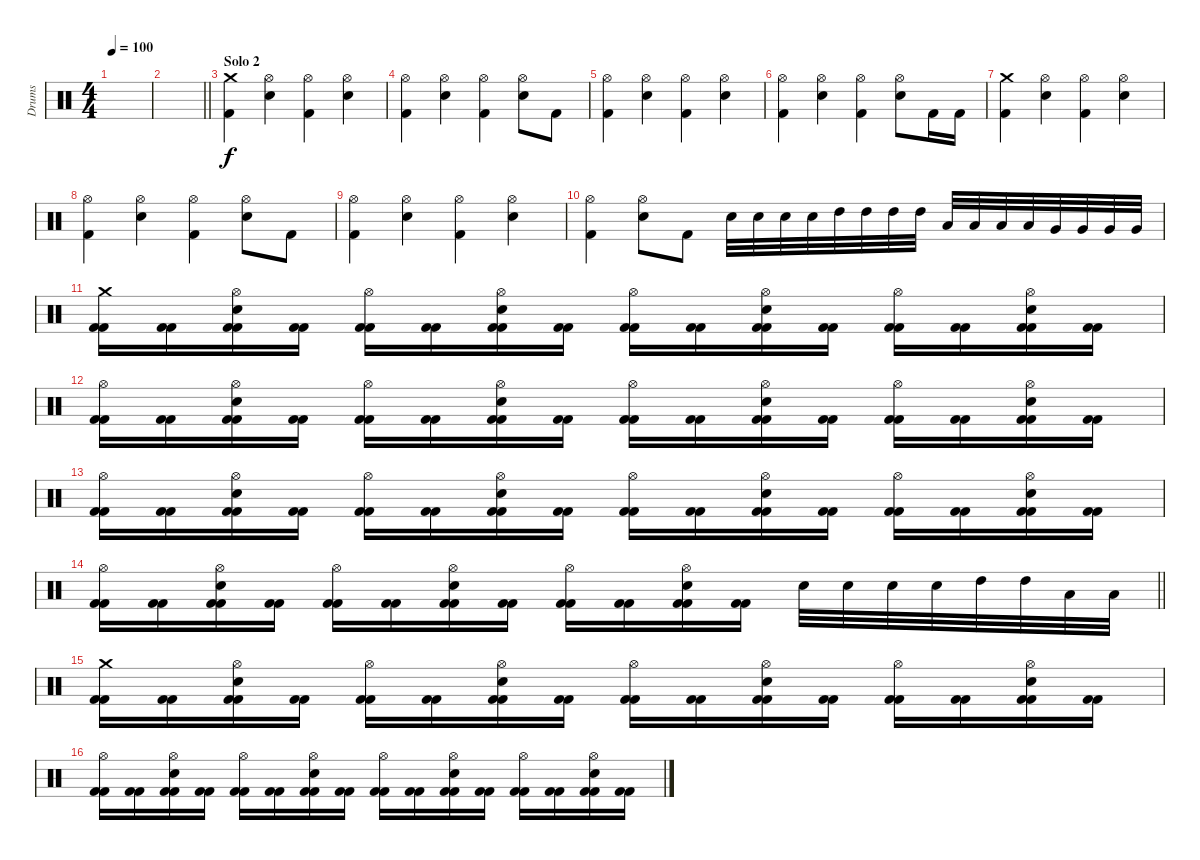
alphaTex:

\track ("Drums" "Drums") {instrument percussion}
\staff {score}
\articulation defaults
\ts (4 4)
\tempo 100
\clef neutral
\ks c
|
\barLineRight lightlight
|
\section ("" "Solo 2")
("Crash medium (hit)" "Kick (hit) 2").4 ("Hi-Hat (open)" "Electric Snare (hit)").4 ("Hi-Hat (open)" "Kick (hit) 2").4 ("Hi-Hat (open)" "Electric Snare (hit)").4 |
("Hi-Hat (open)" "Kick (hit) 2").4 ("Hi-Hat (open)" "Electric Snare (hit)").4 ("Hi-Hat (open)" "Kick (hit) 2").4 ("Hi-Hat (open)" "Electric Snare (hit)").8 "Kick (hit) 2".8 |
("Hi-Hat (open)" "Kick (hit) 2").4 ("Hi-Hat (open)" "Electric Snare (hit)").4 ("Hi-Hat (open)" "Kick (hit) 2").4 ("Hi-Hat (open)" "Electric Snare (hit)").4 |
("Hi-Hat (open)" "Kick (hit) 2").4 ("Hi-Hat (open)" "Electric Snare (hit)").4 ("Hi-Hat (open)" "Kick (hit) 2").4 ("Hi-Hat (open)" "Electric Snare (hit)").8 "Kick (hit) 2".16 "Kick (hit) 2".16 |
("Crash medium (hit)" "Kick (hit) 2").4 ("Hi-Hat (open)" "Electric Snare (hit)").4 ("Hi-Hat (open)" "Kick (hit) 2").4 ("Hi-Hat (open)" "Electric Snare (hit)").4 |
("Hi-Hat (open)" "Kick (hit) 2").4 ("Hi-Hat (open)" "Electric Snare (hit)").4 ("Hi-Hat (open)" "Kick (hit) 2").4 ("Hi-Hat (open)" "Electric Snare (hit)").8 "Kick (hit) 2".8 |
("Hi-Hat (open)" "Kick (hit) 2").4 ("Hi-Hat (open)" "Electric Snare (hit)").4 ("Hi-Hat (open)" "Kick (hit) 2").4 ("Hi-Hat (open)" "Electric Snare (hit)").4 |
("Hi-Hat (open)" "Kick (hit) 2").4 ("Hi-Hat (open)" "Electric Snare (hit)").8 "Kick (hit) 2".8 "Electric Snare (hit)".32 "Electric Snare (hit)".32 "Electric Snare (hit)".32 "Electric Snare (hit)".32 "High Tom (hit)".32 "High Tom (hit)".32 "High Tom (hit)".32 "High Tom (hit)".32 "Low Tom (hit)".32 "Low Tom (hit)".32 "Low Tom (hit)".32 "Low Tom (hit)".32 "Very Low Tom (hit)".32 "Very Low Tom (hit)".32 "Very Low Tom (hit)".32 "Very Low Tom (hit)".32 |
("Crash medium (hit)" "Kick (hit) 2" "Kick (hit) 2").16 ("Kick (hit) 2" "Kick (hit) 2").16 ("Hi-Hat (open)" "Electric Snare (hit)" "Kick (hit) 2" "Kick (hit) 2").16 ("Kick (hit) 2" "Kick (hit) 2").16 ("Hi-Hat (open)" "Kick (hit) 2" "Kick (hit) 2").16 ("Kick (hit) 2" "Kick (hit) 2").16 ("Hi-Hat (open)" "Electric Snare (hit)" "Kick (hit) 2" "Kick (hit) 2").16 ("Kick (hit) 2" "Kick (hit) 2").16 ("Hi-Hat (open)" "Kick (hit) 2" "Kick (hit) 2").16 ("Kick (hit) 2" "Kick (hit) 2").16 ("Hi-Hat (open)" "Electric Snare (hit)" "Kick (hit) 2" "Kick (hit) 2").16 ("Kick (hit) 2" "Kick (hit) 2").16 ("Hi-Hat (open)" "Kick (hit) 2" "Kick (hit) 2").16 ("Kick (hit) 2" "Kick (hit) 2").16 ("Hi-Hat (open)" "Electric Snare (hit)" "Kick (hit) 2" "Kick (hit) 2").16 ("Kick (hit) 2" "Kick (hit) 2").16 |
("Hi-Hat (open)" "Kick (hit) 2" "Kick (hit) 2").16 ("Kick (hit) 2" "Kick (hit) 2").16 ("Hi-Hat (open)" "Electric Snare (hit)" "Kick (hit) 2" "Kick (hit) 2").16 ("Kick (hit) 2" "Kick (hit) 2").16 ("Hi-Hat (open)" "Kick (hit) 2" "Kick (hit) 2").16 ("Kick (hit) 2" "Kick (hit) 2").16 ("Hi-Hat (open)" "Electric Snare (hit)" "Kick (hit) 2" "Kick (hit) 2").16 ("Kick (hit) 2" "Kick (hit) 2").16 ("Hi-Hat (open)" "Kick (hit) 2" "Kick (hit) 2").16 ("Kick (hit) 2" "Kick (hit) 2").16 ("Hi-Hat (open)" "Electric Snare (hit)" "Kick (hit) 2" "Kick (hit) 2").16 ("Kick (hit) 2" "Kick (hit) 2").16 ("Hi-Hat (open)" "Kick (hit) 2" "Kick (hit) 2").16 ("Kick (hit) 2" "Kick (hit) 2").16 ("Hi-Hat (open)" "Electric Snare (hit)" "Kick (hit) 2" "Kick (hit) 2").16 ("Kick (hit) 2" "Kick (hit) 2").16 |
("Hi-Hat (open)" "Kick (hit) 2" "Kick (hit) 2").16 ("Kick (hit) 2" "Kick (hit) 2").16 ("Hi-Hat (open)" "Electric Snare (hit)" "Kick (hit) 2" "Kick (hit) 2").16 ("Kick (hit) 2" "Kick (hit) 2").16 ("Hi-Hat (open)" "Kick (hit) 2" "Kick (hit) 2").16 ("Kick (hit) 2" "Kick (hit) 2").16 ("Hi-Hat (open)" "Electric Snare (hit)" "Kick (hit) 2" "Kick (hit) 2").16 ("Kick (hit) 2" "Kick (hit) 2").16 ("Hi-Hat (open)" "Kick (hit) 2" "Kick (hit) 2").16 ("Kick (hit) 2" "Kick (hit) 2").16 ("Hi-Hat (open)" "Electric Snare (hit)" "Kick (hit) 2" "Kick (hit) 2").16 ("Kick (hit) 2" "Kick (hit) 2").16 ("Hi-Hat (open)" "Kick (hit) 2" "Kick (hit) 2").16 ("Kick (hit) 2" "Kick (hit) 2").16 ("Hi-Hat (open)" "Electric Snare (hit)" "Kick (hit) 2" "Kick (hit) 2").16 ("Kick (hit) 2" "Kick (hit) 2").16 |
\barLineRight lightlight
("Hi-Hat (open)" "Kick (hit) 2" "Kick (hit) 2").16 ("Kick (hit) 2" "Kick (hit) 2").16 ("Hi-Hat (open)" "Electric Snare (hit)" "Kick (hit) 2" "Kick (hit) 2").16 ("Kick (hit) 2" "Kick (hit) 2").16 ("Hi-Hat (open)" "Kick (hit) 2" "Kick (hit) 2").16 ("Kick (hit) 2" "Kick (hit) 2").16 ("Hi-Hat (open)" "Electric Snare (hit)" "Kick (hit) 2" "Kick (hit) 2").16 ("Kick (hit) 2" "Kick (hit) 2").16 ("Hi-Hat (open)" "Kick (hit) 2" "Kick (hit) 2").16 ("Kick (hit) 2" "Kick (hit) 2").16 ("Hi-Hat (open)" "Electric Snare (hit)" "Kick (hit) 2" "Kick (hit) 2").16 ("Kick (hit) 2" "Kick (hit) 2").16 "Electric Snare (hit)".32 "Electric Snare (hit)".32 "Electric Snare (hit)".32 "Electric Snare (hit)".32 "High Tom (hit)".32 "High Tom (hit)".32 "Low Tom (hit)".32 "Low Tom (hit)".32 |
("Crash medium (hit)" "Kick (hit) 2" "Kick (hit) 2").16 ("Kick (hit) 2" "Kick (hit) 2").16 ("Hi-Hat (open)" "Electric Snare (hit)" "Kick (hit) 2" "Kick (hit) 2").16 ("Kick (hit) 2" "Kick (hit) 2").16 ("Hi-Hat (open)" "Kick (hit) 2" "Kick (hit) 2").16 ("Kick (hit) 2" "Kick (hit) 2").16 ("Hi-Hat (open)" "Electric Snare (hit)" "Kick (hit) 2" "Kick (hit) 2").16 ("Kick (hit) 2" "Kick (hit) 2").16 ("Hi-Hat (open)" "Kick (hit) 2" "Kick (hit) 2").16 ("Kick (hit) 2" "Kick (hit) 2").16 ("Hi-Hat (open)" "Electric Snare (hit)" "Kick (hit) 2" "Kick (hit) 2").16 ("Kick (hit) 2" "Kick (hit) 2").16 ("Hi-Hat (open)" "Kick (hit) 2" "Kick (hit) 2").16 ("Kick (hit) 2" "Kick (hit) 2").16 ("Hi-Hat (open)" "Electric Snare (hit)" "Kick (hit) 2" "Kick (hit) 2").16 ("Kick (hit) 2" "Kick (hit) 2").16 |
("Hi-Hat (open)" "Kick (hit) 2" "Kick (hit) 2").16 ("Kick (hit) 2" "Kick (hit) 2").16 ("Hi-Hat (open)" "Electric Snare (hit)" "Kick (hit) 2" "Kick (hit) 2").16 ("Kick (hit) 2" "Kick (hit) 2").16 ("Hi-Hat (open)" "Kick (hit) 2" "Kick (hit) 2").16 ("Kick (hit) 2" "Kick (hit) 2").16 ("Hi-Hat (open)" "Electric Snare (hit)" "Kick (hit) 2" "Kick (hit) 2").16 ("Kick (hit) 2" "Kick (hit) 2").16 ("Hi-Hat (open)" "Kick (hit) 2" "Kick (hit) 2").16 ("Kick (hit) 2" "Kick (hit) 2").16 ("Hi-Hat (open)" "Electric Snare (hit)" "Kick (hit) 2" "Kick (hit) 2").16 ("Kick (hit) 2" "Kick (hit) 2").16 ("Hi-Hat (open)" "Kick (hit) 2" "Kick (hit) 2").16 ("Kick (hit) 2" "Kick (hit) 2").16 ("Hi-Hat (open)" "Electric Snare (hit)" "Kick (hit) 2" "Kick (hit) 2").16 ("Kick (hit) 2" "Kick (hit) 2").16
